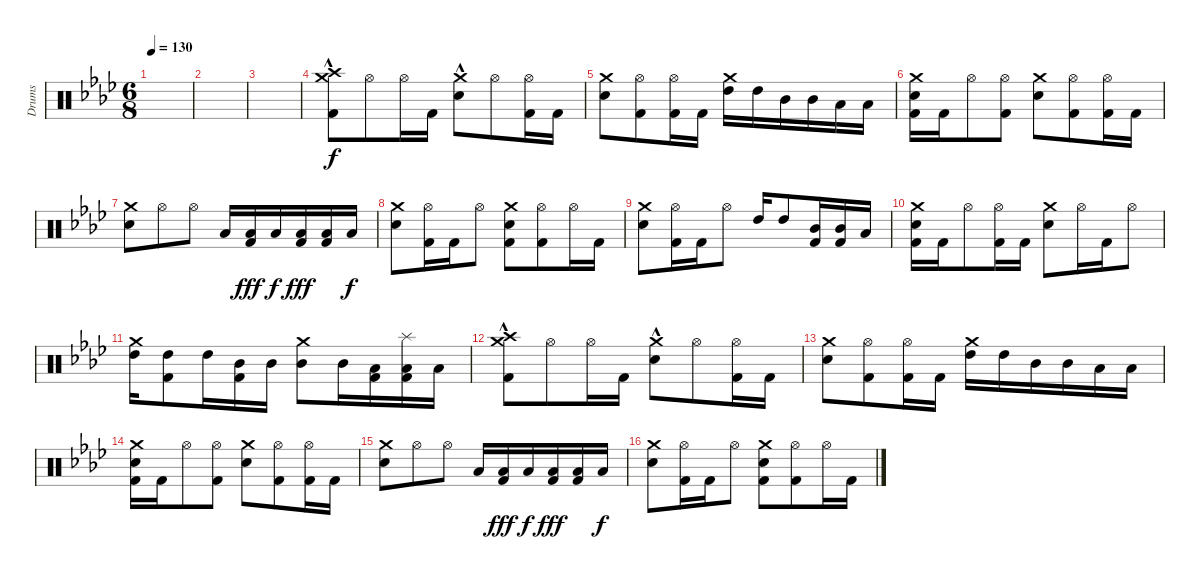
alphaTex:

\track ("Drums" "Drums") {instrument percussion}
\staff {score}
\articulation defaults
\ts (6 8)
\tempo 130
\clef neutral
\ks ab
|
|
|
("Crash medium (hit)"{hac} "Crash high (hit)" "Kick (hit) 2").8 "Hi-Hat (open)".8 "Hi-Hat (open)".16 "Kick (hit) 2".16 ("Crash medium (hit)"{hac} "Electric Snare (hit)").8 "Hi-Hat (open)".8 ("Hi-Hat (open)" "Kick (hit) 2").16 "Kick (hit) 2".16 |
("Crash medium (hit)" "Electric Snare (hit)").8 ("Hi-Hat (open)" "Kick (hit) 2").8 ("Hi-Hat (open)" "Kick (hit) 2").16 "Kick (hit) 2".16 ("High Tom (hit)" "Crash medium (hit)").16 "High Tom (hit)".16 "Mid Tom (hit)".16 "Mid Tom (hit)".16 "Low Tom (hit)".16 "Low Tom (hit)".16 |
("Crash medium (hit)" "Electric Snare (hit)" "Kick (hit) 2").16 "Kick (hit) 2".16 "Hi-Hat (open)".8 ("Hi-Hat (open)" "Kick (hit) 2").8 ("Crash medium (hit)" "Electric Snare (hit)").8 ("Hi-Hat (open)" "Kick (hit) 2").8 ("Hi-Hat (open)" "Kick (hit) 2").16 "Kick (hit) 2".16 |
("Crash medium (hit)" "Electric Snare (hit)").8 "Hi-Hat (open)".8 "Hi-Hat (open)".8 "Low Tom (hit)".16 ("Low Tom (hit)" "Kick (hit) 2").16{dy fff} "Low Tom (hit)".16{dy f} ("Low Tom (hit)" "Kick (hit) 2").16{dy fff} ("Low Tom (hit)" "Kick (hit) 2").16 "Low Tom (hit)".16{dy f} |
("Crash medium (hit)" "Electric Snare (hit)").8 ("Hi-Hat (open)" "Kick (hit) 2").16 "Kick (hit) 2".16 "Hi-Hat (open)".8 ("Crash medium (hit)" "Electric Snare (hit)" "Kick (hit) 2").8 ("Hi-Hat (open)" "Kick (hit) 2").8 "Hi-Hat (open)".16 "Kick (hit) 2".16 |
("Crash medium (hit)" "Electric Snare (hit)").8 ("Hi-Hat (open)" "Kick (hit) 2").16 "Kick (hit) 2".16 "Hi-Hat (open)".8 "High Tom (hit)".16 "High Tom (hit)".8 ("Mid Tom (hit)" "Kick (hit) 2").16 ("Mid Tom (hit)" "Kick (hit) 2").16 "Low Tom (hit)".16 |
("Crash medium (hit)" "Electric Snare (hit)" "Kick (hit) 2").16 "Kick (hit) 2".16 "Hi-Hat (open)".8 ("Hi-Hat (open)" "Kick (hit) 2").16 "Kick (hit) 2".16 ("Crash medium (hit)" "Electric Snare (hit)").8 "Hi-Hat (open)".16 "Kick (hit) 2".16 "Hi-Hat (open)".8 |
("High Tom (hit)" "Crash medium (hit)").16 ("High Tom (hit)" "Kick (hit) 2").8 "High Tom (hit)".16 ("Mid Tom (hit)" "Kick (hit) 2").16 "Mid Tom (hit)".16 ("Mid Tom (hit)" "Crash medium (hit)").8 "Mid Tom (hit)".16 ("Low Tom (hit)" "Kick (hit) 2").16 ("Low Tom (hit)" "Splash (hit)" "Kick (hit) 2").16 "Low Tom (hit)".16 |
("Crash medium (hit)"{hac} "Crash high (hit)" "Kick (hit) 2").8 "Hi-Hat (open)".8 "Hi-Hat (open)".16 "Kick (hit) 2".16 ("Crash medium (hit)"{hac} "Electric Snare (hit)").8 "Hi-Hat (open)".8 ("Hi-Hat (open)" "Kick (hit) 2").16 "Kick (hit) 2".16 |
("Crash medium (hit)" "Electric Snare (hit)").8 ("Hi-Hat (open)" "Kick (hit) 2").8 ("Hi-Hat (open)" "Kick (hit) 2").16 "Kick (hit) 2".16 ("High Tom (hit)" "Crash medium (hit)").16 "High Tom (hit)".16 "Mid Tom (hit)".16 "Mid Tom (hit)".16 "Low Tom (hit)".16 "Low Tom (hit)".16 |
("Crash medium (hit)" "Electric Snare (hit)" "Kick (hit) 2").16 "Kick (hit) 2".16 "Hi-Hat (open)".8 ("Hi-Hat (open)" "Kick (hit) 2").8 ("Crash medium (hit)" "Electric Snare (hit)").8 ("Hi-Hat (open)" "Kick (hit) 2").8 ("Hi-Hat (open)" "Kick (hit) 2").16 "Kick (hit) 2".16 |
("Crash medium (hit)" "Electric Snare (hit)").8 "Hi-Hat (open)".8 "Hi-Hat (open)".8 "Low Tom (hit)".16 ("Low Tom (hit)" "Kick (hit) 2").16{dy fff} "Low Tom (hit)".16{dy f} ("Low Tom (hit)" "Kick (hit) 2").16{dy fff} ("Low Tom (hit)" "Kick (hit) 2").16 "Low Tom (hit)".16{dy f} |
("Crash medium (hit)" "Electric Snare (hit)").8 ("Hi-Hat (open)" "Kick (hit) 2").16 "Kick (hit) 2".16 "Hi-Hat (open)".8 ("Crash medium (hit)" "Electric Snare (hit)" "Kick (hit) 2").8 ("Hi-Hat (open)" "Kick (hit) 2").8 "Hi-Hat (open)".16 "Kick (hit) 2".16
